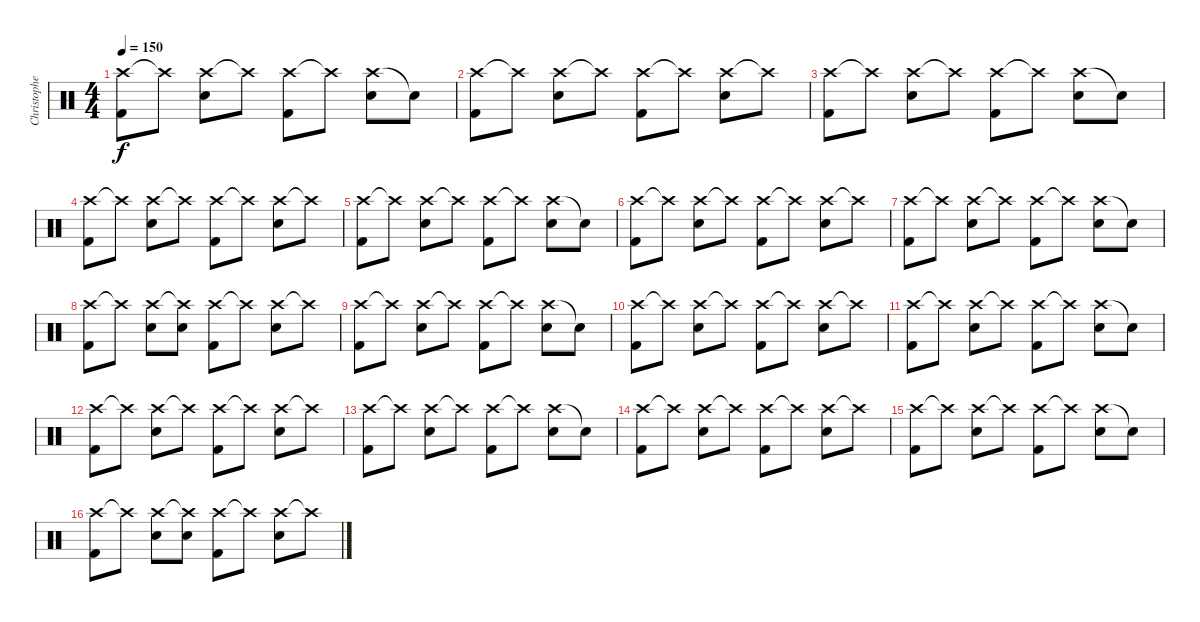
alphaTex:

\track ("Christopher Schneider" "Christophe") {instrument percussion}
\staff {score}
\articulation defaults
\ts (4 4)
\tempo 150
\clef neutral
\ks c
("Crash high (hit)" "Kick (hit) 2").8{dy f} "Crash high (hit)"{t}.8 ("Crash high (hit)" "Electric Snare (hit)").8 "Crash high (hit)"{t}.8 ("Crash high (hit)" "Kick (hit) 2").8 "Crash high (hit)"{t}.8 ("Crash high (hit)" "Electric Snare (hit)").8 "Snare (hit)"{t}.8 |
("Crash high (hit)" "Kick (hit) 2").8 "Crash high (hit)"{t}.8 ("Crash high (hit)" "Electric Snare (hit)").8 "Crash high (hit)"{t}.8 ("Crash high (hit)" "Kick (hit) 2").8 "Crash high (hit)"{t}.8 ("Crash high (hit)" "Electric Snare (hit)").8 "Crash high (hit)"{t}.8 |
("Crash high (hit)" "Kick (hit) 2").8 "Crash high (hit)"{t}.8 ("Crash high (hit)" "Electric Snare (hit)").8 "Crash high (hit)"{t}.8 ("Crash high (hit)" "Kick (hit) 2").8 "Crash high (hit)"{t}.8 ("Crash high (hit)" "Electric Snare (hit)").8 "Snare (hit)"{t}.8 |
("Crash high (hit)" "Kick (hit) 2").8 "Crash high (hit)"{t}.8 ("Crash high (hit)" "Electric Snare (hit)").8 "Crash high (hit)"{t}.8 ("Crash high (hit)" "Kick (hit) 2").8 "Crash high (hit)"{t}.8 ("Crash high (hit)" "Electric Snare (hit)").8 "Crash high (hit)"{t}.8 |
("Crash high (hit)" "Kick (hit) 2").8 "Crash high (hit)"{t}.8 ("Crash high (hit)" "Electric Snare (hit)").8 "Crash high (hit)"{t}.8 ("Crash high (hit)" "Kick (hit) 2").8 "Crash high (hit)"{t}.8 ("Crash high (hit)" "Electric Snare (hit)").8 "Snare (hit)"{t}.8 |
("Crash high (hit)" "Kick (hit) 2").8 "Crash high (hit)"{t}.8 ("Crash high (hit)" "Electric Snare (hit)").8 "Crash high (hit)"{t}.8 ("Crash high (hit)" "Kick (hit) 2").8 "Crash high (hit)"{t}.8 ("Crash high (hit)" "Electric Snare (hit)").8 "Crash high (hit)"{t}.8 |
("Crash high (hit)" "Kick (hit) 2").8 "Crash high (hit)"{t}.8 ("Crash high (hit)" "Electric Snare (hit)").8 "Crash high (hit)"{t}.8 ("Crash high (hit)" "Kick (hit) 2").8 "Crash high (hit)"{t}.8 ("Crash high (hit)" "Electric Snare (hit)").8 "Snare (hit)"{t}.8 |
("Crash high (hit)" "Kick (hit) 2").8 "Crash high (hit)"{t}.8 ("Crash high (hit)" "Electric Snare (hit)").8 ("Crash high (hit)"{t} "Electric Snare (hit)").8 ("Crash high (hit)" "Kick (hit) 2").8 "Crash high (hit)"{t}.8 ("Crash high (hit)" "Electric Snare (hit)").8 "Crash high (hit)"{t}.8 |
("Crash high (hit)" "Kick (hit) 2").8 "Crash high (hit)"{t}.8 ("Crash high (hit)" "Electric Snare (hit)").8 "Crash high (hit)"{t}.8 ("Crash high (hit)" "Kick (hit) 2").8 "Crash high (hit)"{t}.8 ("Crash high (hit)" "Electric Snare (hit)").8 "Snare (hit)"{t}.8 |
("Crash high (hit)" "Kick (hit) 2").8 "Crash high (hit)"{t}.8 ("Crash high (hit)" "Electric Snare (hit)").8 "Crash high (hit)"{t}.8 ("Crash high (hit)" "Kick (hit) 2").8 "Crash high (hit)"{t}.8 ("Crash high (hit)" "Electric Snare (hit)").8 "Crash high (hit)"{t}.8 |
("Crash high (hit)" "Kick (hit) 2").8 "Crash high (hit)"{t}.8 ("Crash high (hit)" "Electric Snare (hit)").8 "Crash high (hit)"{t}.8 ("Crash high (hit)" "Kick (hit) 2").8 "Crash high (hit)"{t}.8 ("Crash high (hit)" "Electric Snare (hit)").8 "Snare (hit)"{t}.8 |
("Crash high (hit)" "Kick (hit) 2").8 "Crash high (hit)"{t}.8 ("Crash high (hit)" "Electric Snare (hit)").8 "Crash high (hit)"{t}.8 ("Crash high (hit)" "Kick (hit) 2").8 "Crash high (hit)"{t}.8 ("Crash high (hit)" "Electric Snare (hit)").8 "Crash high (hit)"{t}.8 |
("Crash high (hit)" "Kick (hit) 2").8 "Crash high (hit)"{t}.8 ("Crash high (hit)" "Electric Snare (hit)").8 "Crash high (hit)"{t}.8 ("Crash high (hit)" "Kick (hit) 2").8 "Crash high (hit)"{t}.8 ("Crash high (hit)" "Electric Snare (hit)").8 "Snare (hit)"{t}.8 |
("Crash high (hit)" "Kick (hit) 2").8 "Crash high (hit)"{t}.8 ("Crash high (hit)" "Electric Snare (hit)").8 "Crash high (hit)"{t}.8 ("Crash high (hit)" "Kick (hit) 2").8 "Crash high (hit)"{t}.8 ("Crash high (hit)" "Electric Snare (hit)").8 "Crash high (hit)"{t}.8 |
("Crash high (hit)" "Kick (hit) 2").8 "Crash high (hit)"{t}.8 ("Crash high (hit)" "Electric Snare (hit)").8 "Crash high (hit)"{t}.8 ("Crash high (hit)" "Kick (hit) 2").8 "Crash high (hit)"{t}.8 ("Crash high (hit)" "Electric Snare (hit)").8 "Snare (hit)"{t}.8 |
("Crash high (hit)" "Kick (hit) 2").8 "Crash high (hit)"{t}.8 ("Crash high (hit)" "Electric Snare (hit)").8 ("Crash high (hit)"{t} "Electric Snare (hit)").8 ("Crash high (hit)" "Kick (hit) 2").8 "Crash high (hit)"{t}.8 ("Crash high (hit)" "Electric Snare (hit)").8 "Crash high (hit)"{t}.8
